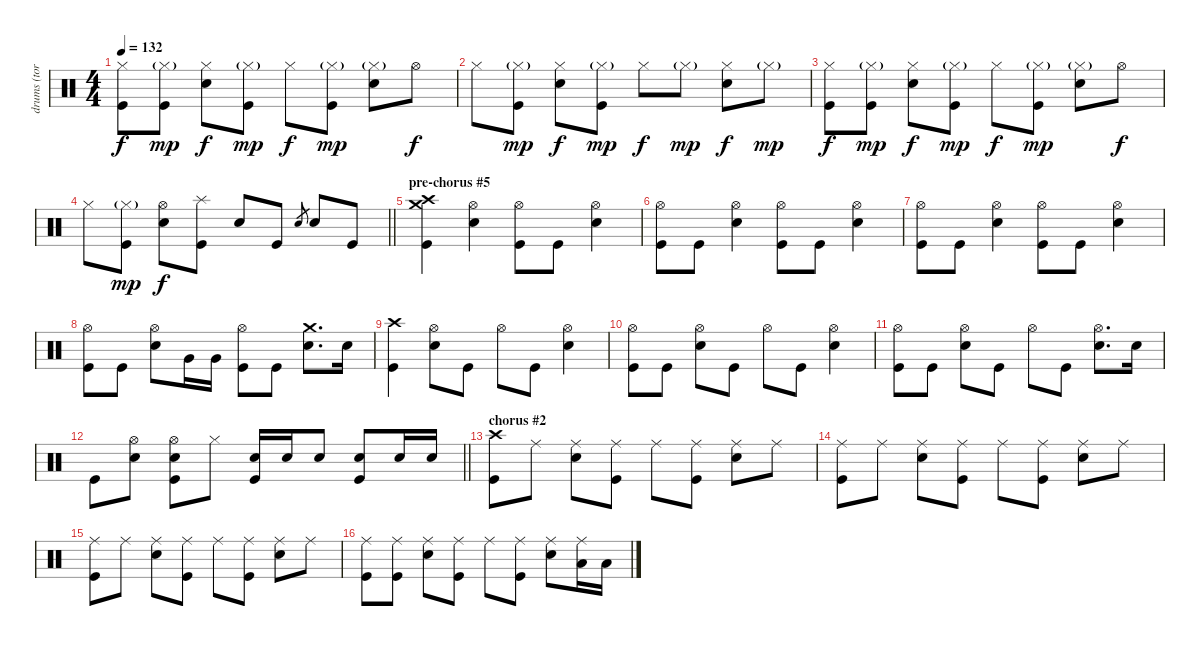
\track ("drums (tora)" "drums (tor") {instrument percussion}
\staff {score}
\articulation defaults
\ts (4 4)
\tempo 132
\clef neutral
\ks c
("Hi-Hat (closed)" "Kick (hit)").8{dy f} ("Hi-Hat (closed)"{g} "Kick (hit)").8{dy mp} ("Hi-Hat (closed)" "Snare (hit) 2").8{dy f} ("Hi-Hat (closed)"{g} "Kick (hit)").8{dy mp} "Hi-Hat (closed)".8{dy f} ("Hi-Hat (closed)"{g} "Kick (hit)").8{dy mp} ("Hi-Hat (closed)"{g} "Snare (hit) 2").8 "Hi-Hat (open)".8{dy f} |
"Hi-Hat (closed)".8 ("Hi-Hat (closed)"{g} "Kick (hit)").8{dy mp} ("Hi-Hat (closed)" "Snare (hit) 2").8{dy f} ("Hi-Hat (closed)"{g} "Kick (hit)").8{dy mp} "Hi-Hat (closed)".8{dy f} "Hi-Hat (closed)"{g}.8{dy mp} ("Hi-Hat (closed)" "Snare (hit) 2").8{dy f} "Hi-Hat (closed)"{g}.8{dy mp} |
("Hi-Hat (closed)" "Kick (hit)").8{dy f} ("Hi-Hat (closed)"{g} "Kick (hit)").8{dy mp} ("Hi-Hat (closed)" "Snare (hit) 2").8{dy f} ("Hi-Hat (closed)"{g} "Kick (hit)").8{dy mp} "Hi-Hat (closed)".8{dy f} ("Hi-Hat (closed)"{g} "Kick (hit)").8{dy mp} ("Hi-Hat (closed)"{g} "Snare (hit) 2").8 "Hi-Hat (open)".8{dy f} |
\barLineRight lightlight "Hi-Hat (closed)".8
("Hi-Hat (closed)"{g} "Kick (hit)").8{dy mp} ("Hi-Hat (open)" "Snare (hit) 2").8{dy f} ("Splash (hit)" "Kick (hit)").8 "Snare (hit) 2".8 "Kick (hit)".8 "Snare (hit) 2".8{gr} "Snare (hit) 2".8 "Kick (hit)".8 |
\section ("" "pre-chorus #5")
("Crash high (hit)" "Crash medium (hit)" "Kick (hit)").4 ("Hi-Hat (open)" "Snare (hit) 2").4 ("Hi-Hat (open)" "Kick (hit)").8 "Kick (hit)".8 ("Hi-Hat (open)" "Snare (hit) 2").4 |
("Hi-Hat (open)" "Kick (hit)").8 "Kick (hit)".8 ("Hi-Hat (open)" "Snare (hit) 2").4 ("Hi-Hat (open)" "Kick (hit)").8 "Kick (hit)".8 ("Hi-Hat (open)" "Snare (hit) 2").4 |
("Hi-Hat (open)" "Kick (hit)").8 "Kick (hit)".8 ("Hi-Hat (open)" "Snare (hit) 2").4 ("Hi-Hat (open)" "Kick (hit)").8 "Kick (hit)".8 ("Hi-Hat (open)" "Snare (hit) 2").4 |
("Hi-Hat (open)" "Kick (hit)").8 "Kick (hit)".8 ("Hi-Hat (open)" "Snare (hit) 2").8 "Very Low Tom (hit)".16 "Very Low Tom (hit)".16 ("Hi-Hat (open)" "Kick (hit)").8 "Kick (hit)".8 ("Crash medium (hit)" "Snare (hit) 2").8{d} "Snare (hit) 2".16 |
("Crash high (hit)" "Kick (hit)").4 ("Hi-Hat (open)" "Snare (hit) 2").8 "Kick (hit)".8 "Hi-Hat (open)".8 "Kick (hit)".8 ("Hi-Hat (open)" "Snare (hit) 2").4 |
("Hi-Hat (open)" "Kick (hit)").8 "Kick (hit)".8 ("Hi-Hat (open)" "Snare (hit) 2").8 "Kick (hit)".8 "Hi-Hat (open)".8 "Kick (hit)".8 ("Hi-Hat (open)" "Snare (hit) 2").4 |
("Hi-Hat (open)" "Kick (hit)").8 "Kick (hit)".8 ("Hi-Hat (open)" "Snare (hit) 2").8 "Kick (hit)".8 "Hi-Hat (open)".8 "Kick (hit)".8 ("Hi-Hat (open)" "Snare (hit) 2").8{d} "Snare (hit) 2".16 |
\barLineRight lightlight "Kick (hit)".8
("Hi-Hat (open)" "Snare (hit) 2").8 ("Hi-Hat (open)" "Snare (hit) 2" "Kick (hit)").8 "Hi-Hat (closed)".8 ("Snare (hit) 2" "Kick (hit)").16 "Snare (hit) 2".16 "Snare (hit) 2".8 ("Snare (hit) 2" "Kick (hit)").8 "Snare (hit) 2".16 "Snare (hit) 2".16 |
\section ("" "chorus #2")
("Crash high (hit)" "Kick (hit)").8 "Ride (middle)".8 ("Ride (middle)" "Snare (hit) 2").8 ("Ride (middle)" "Kick (hit)").8 "Ride (middle)".8 ("Ride (middle)" "Kick (hit)").8 ("Ride (middle)" "Snare (hit) 2").8 "Ride (middle)".8 |
("Ride (middle)" "Kick (hit)").8 "Ride (middle)".8 ("Ride (middle)" "Snare (hit) 2").8 ("Ride (middle)" "Kick (hit)").8 "Ride (middle)".8 ("Ride (middle)" "Kick (hit)").8 ("Ride (middle)" "Snare (hit) 2").8 "Ride (middle)".8 |
("Ride (middle)" "Kick (hit)").8 "Ride (middle)".8 ("Ride (middle)" "Snare (hit) 2").8 ("Ride (middle)" "Kick (hit)").8 "Ride (middle)".8 ("Ride (middle)" "Kick (hit)").8 ("Ride (middle)" "Snare (hit) 2").8 "Ride (middle)".8 |
("Ride (middle)" "Kick (hit)").8 ("Ride (middle)" "Kick (hit)").8 ("Ride (middle)" "Snare (hit) 2").8 ("Ride (middle)" "Kick (hit)").8 "Ride (middle)".8 ("Ride (middle)" "Kick (hit)").8 ("Ride (middle)" "Snare (hit) 2").8 ("Ride (middle)" "Low Tom (hit)").16 "Low Tom (hit)".16
